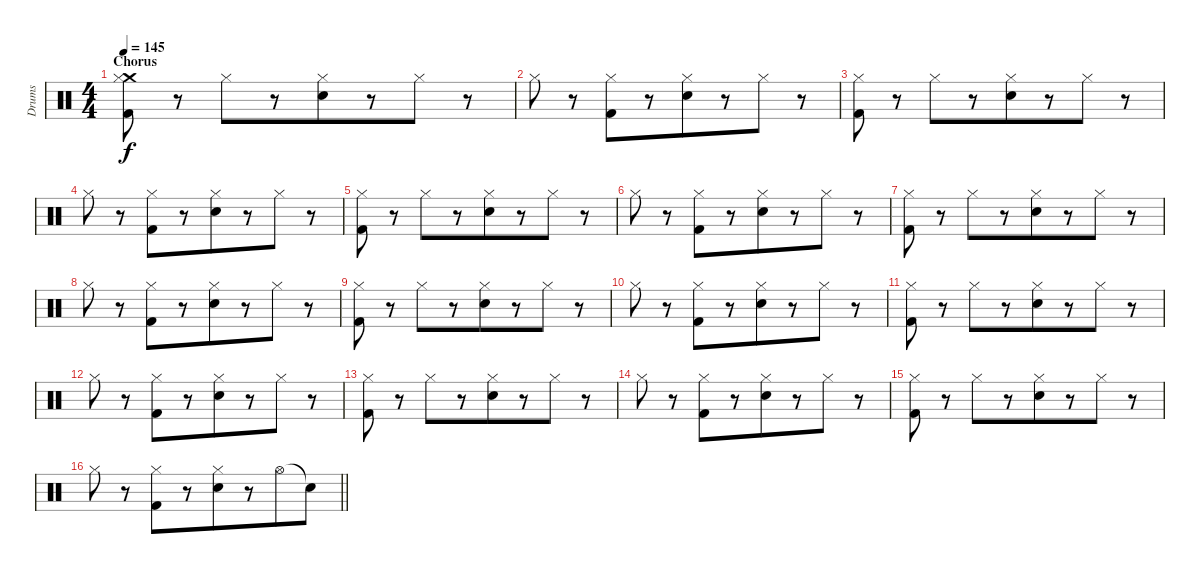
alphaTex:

\track ("Drums" "Drums") {instrument percussion bank 245}
\staff {score}
\articulation defaults
\ts (4 4)
\section ("" "Chorus")
\tempo 145
\clef neutral
\ks c
("Crash medium (hit)" "Kick (hit) 2" "Hi-Hat (closed)").8{dy f} r.8{beam merge} "Hi-Hat (closed)".8{beam merge} r.8 ("Electric Snare (hit)" "Hi-Hat (closed)").8{beam merge} r.8 "Hi-Hat (closed)".8{beam merge} r.8 |
"Hi-Hat (closed)".8 r.8{beam merge} ("Kick (hit) 2" "Hi-Hat (closed)").8{beam merge} r.8 ("Electric Snare (hit)" "Hi-Hat (closed)").8{beam merge} r.8 "Hi-Hat (closed)".8{beam merge} r.8 |
("Kick (hit) 2" "Hi-Hat (closed)").8 r.8{beam merge} "Hi-Hat (closed)".8{beam merge} r.8 ("Electric Snare (hit)" "Hi-Hat (closed)").8{beam merge} r.8 "Hi-Hat (closed)".8{beam merge} r.8 |
"Hi-Hat (closed)".8 r.8{beam merge} ("Kick (hit) 2" "Hi-Hat (closed)").8{beam merge} r.8 ("Electric Snare (hit)" "Hi-Hat (closed)").8{beam merge} r.8 "Hi-Hat (closed)".8{beam merge} r.8 |
("Kick (hit) 2" "Hi-Hat (closed)").8 r.8{beam merge} "Hi-Hat (closed)".8{beam merge} r.8 ("Electric Snare (hit)" "Hi-Hat (closed)").8{beam merge} r.8 "Hi-Hat (closed)".8{beam merge} r.8 |
"Hi-Hat (closed)".8 r.8{beam merge} ("Kick (hit) 2" "Hi-Hat (closed)").8{beam merge} r.8 ("Electric Snare (hit)" "Hi-Hat (closed)").8{beam merge} r.8 "Hi-Hat (closed)".8{beam merge} r.8 |
("Kick (hit) 2" "Hi-Hat (closed)").8 r.8{beam merge} "Hi-Hat (closed)".8{beam merge} r.8 ("Electric Snare (hit)" "Hi-Hat (closed)").8{beam merge} r.8 "Hi-Hat (closed)".8{beam merge} r.8 |
"Hi-Hat (closed)".8 r.8{beam merge} ("Kick (hit) 2" "Hi-Hat (closed)").8{beam merge} r.8 ("Electric Snare (hit)" "Hi-Hat (closed)").8{beam merge} r.8 "Hi-Hat (closed)".8{beam merge} r.8 |
("Kick (hit) 2" "Hi-Hat (closed)").8 r.8{beam merge} "Hi-Hat (closed)".8{beam merge} r.8 ("Electric Snare (hit)" "Hi-Hat (closed)").8{beam merge} r.8 "Hi-Hat (closed)".8{beam merge} r.8 |
"Hi-Hat (closed)".8 r.8{beam merge} ("Kick (hit) 2" "Hi-Hat (closed)").8{beam merge} r.8 ("Electric Snare (hit)" "Hi-Hat (closed)").8{beam merge} r.8 "Hi-Hat (closed)".8{beam merge} r.8 |
("Kick (hit) 2" "Hi-Hat (closed)").8 r.8{beam merge} "Hi-Hat (closed)".8{beam merge} r.8 ("Electric Snare (hit)" "Hi-Hat (closed)").8{beam merge} r.8 "Hi-Hat (closed)".8{beam merge} r.8 |
"Hi-Hat (closed)".8 r.8{beam merge} ("Kick (hit) 2" "Hi-Hat (closed)").8{beam merge} r.8 ("Electric Snare (hit)" "Hi-Hat (closed)").8{beam merge} r.8 "Hi-Hat (closed)".8{beam merge} r.8 |
("Kick (hit) 2" "Hi-Hat (closed)").8 r.8{beam merge} "Hi-Hat (closed)".8{beam merge} r.8 ("Electric Snare (hit)" "Hi-Hat (closed)").8{beam merge} r.8 "Hi-Hat (closed)".8{beam merge} r.8 |
"Hi-Hat (closed)".8 r.8{beam merge} ("Kick (hit) 2" "Hi-Hat (closed)").8{beam merge} r.8 ("Electric Snare (hit)" "Hi-Hat (closed)").8{beam merge} r.8 "Hi-Hat (closed)".8{beam merge} r.8 |
("Kick (hit) 2" "Hi-Hat (closed)").8 r.8{beam merge} "Hi-Hat (closed)".8{beam merge} r.8 ("Electric Snare (hit)" "Hi-Hat (closed)").8{beam merge} r.8 "Hi-Hat (closed)".8{beam merge} r.8 |
\barLineRight lightlight "Hi-Hat (closed)".8
r.8{beam merge} ("Kick (hit) 2" "Hi-Hat (closed)").8{beam merge} r.8 ("Electric Snare (hit)" "Hi-Hat (closed)").8{beam merge} r.8 "Hi-Hat (open)".8{beam merge} "Snare (hit)"{t}.8
